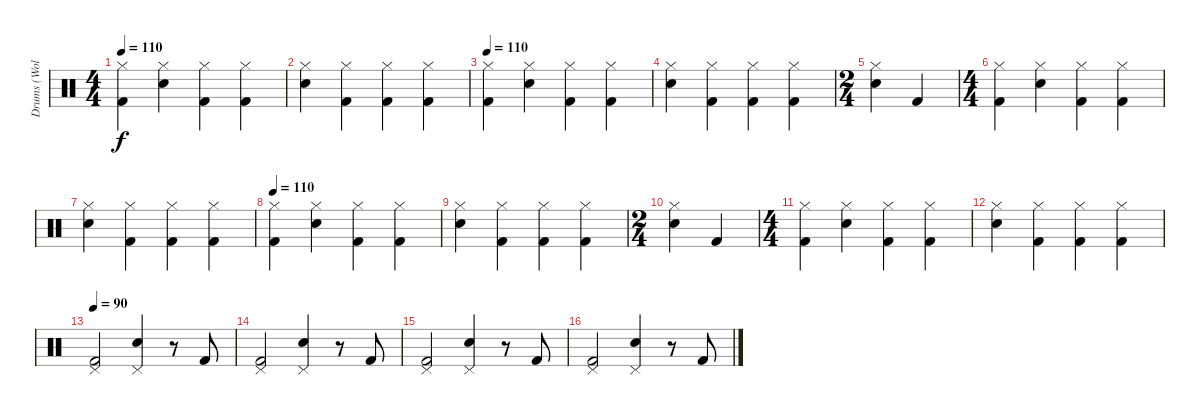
\track ("Drums (Wolf Simons)" "Drums (Wol") {instrument percussion}
\staff {score}
\articulation defaults
\ts (4 4)
\tempo 110
\clef neutral
\ks c
("Hi-Hat (closed)" "Kick (hit) 2").4{dy f} ("Hi-Hat (closed)" "Electric Snare (hit)").4 ("Hi-Hat (closed)" "Kick (hit) 2").4 ("Hi-Hat (closed)" "Kick (hit) 2").4 |
("Hi-Hat (closed)" "Electric Snare (hit)").4 ("Hi-Hat (closed)" "Kick (hit) 2").4 ("Hi-Hat (closed)" "Kick (hit) 2").4 ("Hi-Hat (closed)" "Kick (hit) 2").4 |
\tempo 110
("Hi-Hat (closed)" "Kick (hit) 2").4 ("Hi-Hat (closed)" "Electric Snare (hit)").4 ("Hi-Hat (closed)" "Kick (hit) 2").4 ("Hi-Hat (closed)" "Kick (hit) 2").4 |
("Hi-Hat (closed)" "Electric Snare (hit)").4 ("Hi-Hat (closed)" "Kick (hit) 2").4 ("Hi-Hat (closed)" "Kick (hit) 2").4 ("Hi-Hat (closed)" "Kick (hit) 2").4 |
\ts (2 4)
("Hi-Hat (closed)" "Electric Snare (hit)").4 "Kick (hit) 2".4 |
\ts (4 4)
("Hi-Hat (closed)" "Kick (hit) 2").4 ("Hi-Hat (closed)" "Electric Snare (hit)").4 ("Hi-Hat (closed)" "Kick (hit) 2").4 ("Hi-Hat (closed)" "Kick (hit) 2").4 |
("Hi-Hat (closed)" "Electric Snare (hit)").4 ("Hi-Hat (closed)" "Kick (hit) 2").4 ("Hi-Hat (closed)" "Kick (hit) 2").4 ("Hi-Hat (closed)" "Kick (hit) 2").4 |
\tempo 110
("Hi-Hat (closed)" "Kick (hit) 2").4 ("Hi-Hat (closed)" "Electric Snare (hit)").4 ("Hi-Hat (closed)" "Kick (hit) 2").4 ("Hi-Hat (closed)" "Kick (hit) 2").4 |
("Hi-Hat (closed)" "Electric Snare (hit)").4 ("Hi-Hat (closed)" "Kick (hit) 2").4 ("Hi-Hat (closed)" "Kick (hit) 2").4 ("Hi-Hat (closed)" "Kick (hit) 2").4 |
\ts (2 4)
("Hi-Hat (closed)" "Electric Snare (hit)").4 "Kick (hit) 2".4 |
\ts (4 4)
("Hi-Hat (closed)" "Kick (hit) 2").4 ("Hi-Hat (closed)" "Electric Snare (hit)").4 ("Hi-Hat (closed)" "Kick (hit) 2").4 ("Hi-Hat (closed)" "Kick (hit) 2").4 |
("Hi-Hat (closed)" "Electric Snare (hit)").4 ("Hi-Hat (closed)" "Kick (hit) 2").4 ("Hi-Hat (closed)" "Kick (hit) 2").4 ("Hi-Hat (closed)" "Kick (hit) 2").4 |
\tempo 90
("Pedal Hi-Hat (hit)" "Kick (hit) 2").2 ("Pedal Hi-Hat (hit)" "Snare (hit) 2").4 r.8 "Kick (hit) 2".8 |
("Pedal Hi-Hat (hit)" "Kick (hit) 2").2 ("Pedal Hi-Hat (hit)" "Snare (hit) 2").4 r.8 "Kick (hit) 2".8 |
("Pedal Hi-Hat (hit)" "Kick (hit) 2").2 ("Pedal Hi-Hat (hit)" "Snare (hit) 2").4 r.8 "Kick (hit) 2".8 |
("Pedal Hi-Hat (hit)" "Kick (hit) 2").2 ("Pedal Hi-Hat (hit)" "Snare (hit) 2").4 r.8 "Kick (hit) 2".8
